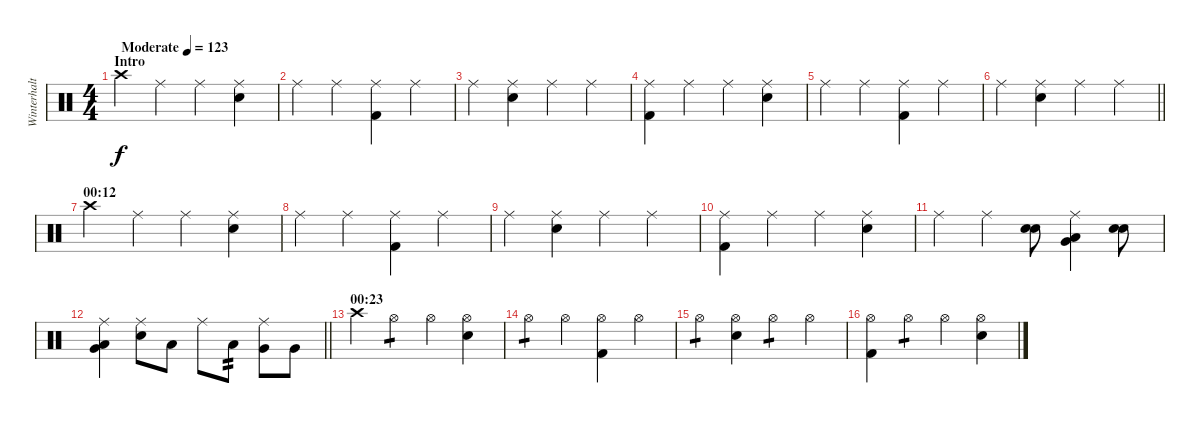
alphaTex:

\track ("Winterhalten" "Winterhalt") {instrument percussion}
\staff {score}
\articulation defaults
\ts (4 4)
\section ("" "Intro")
\tempo (123 "Moderate")
\clef neutral
\ks c "Crash high (hit)".4{dy f} "Ride (middle)".4 "Ride (middle)".4
("Ride (middle)" "Snare (hit) 2").4 |
"Ride (middle)".4 "Ride (middle)".4 ("Ride (middle)" "Kick (hit) 2").4 "Ride (middle)".4 |
"Ride (middle)".4 ("Ride (middle)" "Snare (hit) 2").4 "Ride (middle)".4 "Ride (middle)".4 |
("Ride (middle)" "Kick (hit) 2").4 "Ride (middle)".4 "Ride (middle)".4 ("Ride (middle)" "Snare (hit) 2").4 |
"Ride (middle)".4 "Ride (middle)".4 ("Ride (middle)" "Kick (hit) 2").4 "Ride (middle)".4 |
\barLineRight lightlight "Ride (middle)".4
("Ride (middle)" "Snare (hit) 2").4 "Ride (middle)".4 "Ride (middle)".4 |
\section ("" "00:12")
"Crash high (hit)".4 "Ride (middle)".4 "Ride (middle)".4 ("Ride (middle)" "Snare (hit) 2").4 |
"Ride (middle)".4 "Ride (middle)".4 ("Ride (middle)" "Kick (hit) 2").4 "Ride (middle)".4 |
"Ride (middle)".4 ("Ride (middle)" "Snare (hit) 2").4 "Ride (middle)".4 "Ride (middle)".4 |
("Ride (middle)" "Kick (hit) 2").4 "Ride (middle)".4 "Ride (middle)".4 ("Ride (middle)" "Snare (hit) 2").4 |
"Ride (middle)".4 "Ride (middle)".4 ("Snare (hit) 2" "Electric Snare (hit)").8 ("Ride (middle)" "Low Tom (hit)" "Very Low Tom (hit)").4 ("Snare (hit) 2" "Electric Snare (hit)").8 |
\barLineRight lightlight
("Ride (middle)" "Low Tom (hit)" "Very Low Tom (hit)").4 ("Ride (middle)" "Snare (hit) 2").8 "Low Tom (hit)".8 "Ride (middle)".8 "Low Tom (hit)".8{tp 2} ("Ride (middle)" "Very Low Tom (hit)").8 "Very Low Tom (hit)".8 |
\section ("" "00:23")
"Crash high (hit)".4 "Hi-Hat (open)".4{tp 1} "Hi-Hat (open)".4 ("Hi-Hat (open)" "Snare (hit) 2").4 |
"Hi-Hat (open)".4{tp 1} "Hi-Hat (open)".4 ("Hi-Hat (open)" "Kick (hit) 2").4 "Hi-Hat (open)".4 |
"Hi-Hat (open)".4{tp 1} ("Hi-Hat (open)" "Snare (hit) 2").4 "Hi-Hat (open)".4{tp 1} "Hi-Hat (open)".4 |
("Hi-Hat (open)" "Kick (hit) 2").4 "Hi-Hat (open)".4{tp 1} "Hi-Hat (open)".4 ("Hi-Hat (open)" "Snare (hit) 2").4
